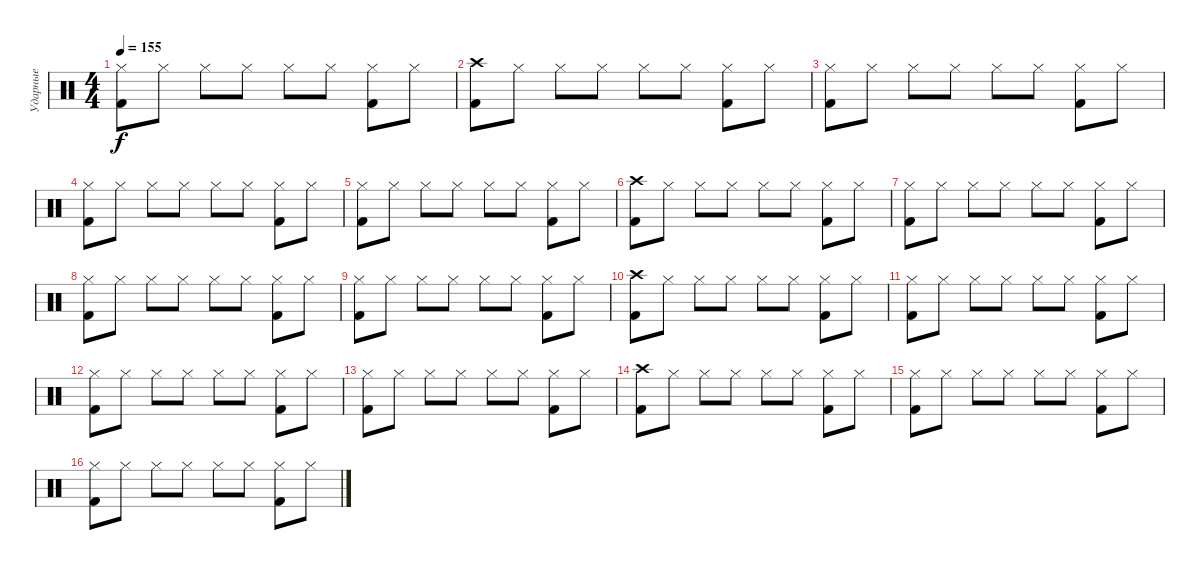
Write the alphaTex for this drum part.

\track ("Ударные" "Ударные") {instrument percussion}
\staff {score}
\articulation defaults
\ts (4 4)
\tempo 155
\clef neutral
\ks c
("Hi-Hat (closed)" "Kick (hit) 2").8{dy f} "Hi-Hat (closed)".8 "Hi-Hat (closed)".8 "Hi-Hat (closed)".8 "Hi-Hat (closed)".8 "Hi-Hat (closed)".8 ("Hi-Hat (closed)" "Kick (hit) 2").8 "Hi-Hat (closed)".8 |
("Crash high (hit)" "Kick (hit) 2").8 "Hi-Hat (closed)".8 "Hi-Hat (closed)".8 "Hi-Hat (closed)".8 "Hi-Hat (closed)".8 "Hi-Hat (closed)".8 ("Hi-Hat (closed)" "Kick (hit) 2").8 "Hi-Hat (closed)".8 |
("Hi-Hat (closed)" "Kick (hit) 2").8 "Hi-Hat (closed)".8 "Hi-Hat (closed)".8 "Hi-Hat (closed)".8 "Hi-Hat (closed)".8 "Hi-Hat (closed)".8 ("Hi-Hat (closed)" "Kick (hit) 2").8 "Hi-Hat (closed)".8 |
("Hi-Hat (closed)" "Kick (hit) 2").8 "Hi-Hat (closed)".8 "Hi-Hat (closed)".8 "Hi-Hat (closed)".8 "Hi-Hat (closed)".8 "Hi-Hat (closed)".8 ("Hi-Hat (closed)" "Kick (hit) 2").8 "Hi-Hat (closed)".8 |
("Hi-Hat (closed)" "Kick (hit) 2").8 "Hi-Hat (closed)".8 "Hi-Hat (closed)".8 "Hi-Hat (closed)".8 "Hi-Hat (closed)".8 "Hi-Hat (closed)".8 ("Hi-Hat (closed)" "Kick (hit) 2").8 "Hi-Hat (closed)".8 |
("Crash high (hit)" "Kick (hit) 2").8 "Hi-Hat (closed)".8 "Hi-Hat (closed)".8 "Hi-Hat (closed)".8 "Hi-Hat (closed)".8 "Hi-Hat (closed)".8 ("Hi-Hat (closed)" "Kick (hit) 2").8 "Hi-Hat (closed)".8 |
("Hi-Hat (closed)" "Kick (hit) 2").8 "Hi-Hat (closed)".8 "Hi-Hat (closed)".8 "Hi-Hat (closed)".8 "Hi-Hat (closed)".8 "Hi-Hat (closed)".8 ("Hi-Hat (closed)" "Kick (hit) 2").8 "Hi-Hat (closed)".8 |
("Hi-Hat (closed)" "Kick (hit) 2").8 "Hi-Hat (closed)".8 "Hi-Hat (closed)".8 "Hi-Hat (closed)".8 "Hi-Hat (closed)".8 "Hi-Hat (closed)".8 ("Hi-Hat (closed)" "Kick (hit) 2").8 "Hi-Hat (closed)".8 |
("Hi-Hat (closed)" "Kick (hit) 2").8 "Hi-Hat (closed)".8 "Hi-Hat (closed)".8 "Hi-Hat (closed)".8 "Hi-Hat (closed)".8 "Hi-Hat (closed)".8 ("Hi-Hat (closed)" "Kick (hit) 2").8 "Hi-Hat (closed)".8 |
("Crash high (hit)" "Kick (hit) 2").8 "Hi-Hat (closed)".8 "Hi-Hat (closed)".8 "Hi-Hat (closed)".8 "Hi-Hat (closed)".8 "Hi-Hat (closed)".8 ("Hi-Hat (closed)" "Kick (hit) 2").8 "Hi-Hat (closed)".8 |
("Hi-Hat (closed)" "Kick (hit) 2").8 "Hi-Hat (closed)".8 "Hi-Hat (closed)".8 "Hi-Hat (closed)".8 "Hi-Hat (closed)".8 "Hi-Hat (closed)".8 ("Hi-Hat (closed)" "Kick (hit) 2").8 "Hi-Hat (closed)".8 |
("Hi-Hat (closed)" "Kick (hit) 2").8 "Hi-Hat (closed)".8 "Hi-Hat (closed)".8 "Hi-Hat (closed)".8 "Hi-Hat (closed)".8 "Hi-Hat (closed)".8 ("Hi-Hat (closed)" "Kick (hit) 2").8 "Hi-Hat (closed)".8 |
("Hi-Hat (closed)" "Kick (hit) 2").8 "Hi-Hat (closed)".8 "Hi-Hat (closed)".8 "Hi-Hat (closed)".8 "Hi-Hat (closed)".8 "Hi-Hat (closed)".8 ("Hi-Hat (closed)" "Kick (hit) 2").8 "Hi-Hat (closed)".8 |
("Crash high (hit)" "Kick (hit) 2").8 "Hi-Hat (closed)".8 "Hi-Hat (closed)".8 "Hi-Hat (closed)".8 "Hi-Hat (closed)".8 "Hi-Hat (closed)".8 ("Hi-Hat (closed)" "Kick (hit) 2").8 "Hi-Hat (closed)".8 |
("Hi-Hat (closed)" "Kick (hit) 2").8 "Hi-Hat (closed)".8 "Hi-Hat (closed)".8 "Hi-Hat (closed)".8 "Hi-Hat (closed)".8 "Hi-Hat (closed)".8 ("Hi-Hat (closed)" "Kick (hit) 2").8 "Hi-Hat (closed)".8 |
("Hi-Hat (closed)" "Kick (hit) 2").8 "Hi-Hat (closed)".8 "Hi-Hat (closed)".8 "Hi-Hat (closed)".8 "Hi-Hat (closed)".8 "Hi-Hat (closed)".8 ("Hi-Hat (closed)" "Kick (hit) 2").8 "Hi-Hat (closed)".8
